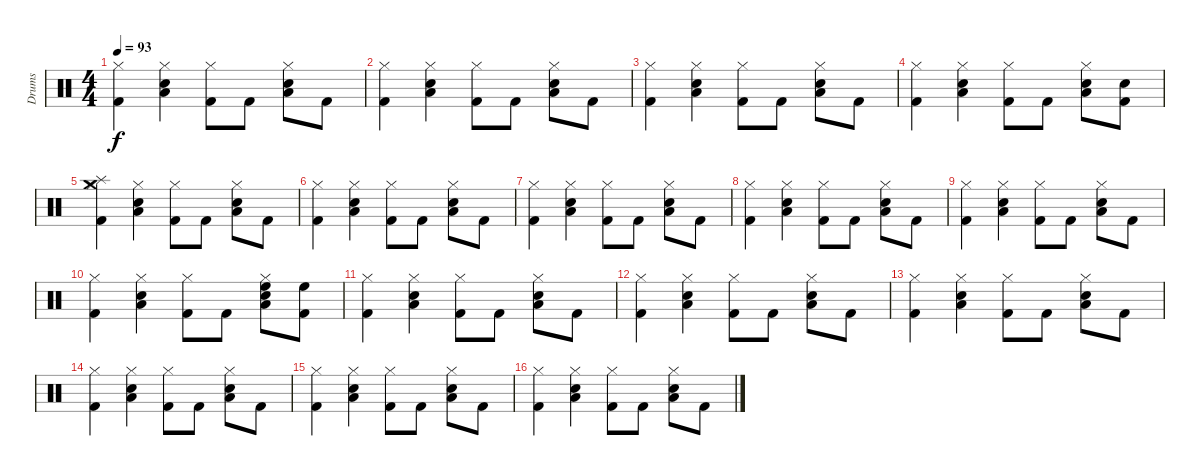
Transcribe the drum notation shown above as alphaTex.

\track ("Drums" "Drums") {instrument percussion}
\staff {score}
\articulation defaults
\ts (4 4)
\tempo 93
\clef neutral
\ks c
("Hi-Hat (closed)" "Kick (hit) 2").4{dy f} ("Hi-Hat (closed)" "Snare (hit) 2" "Low Tom (hit)").4 ("Hi-Hat (closed)" "Kick (hit) 2").8 "Kick (hit) 2".8 ("Hi-Hat (closed)" "Snare (hit) 2" "Low Tom (hit)").8 "Kick (hit) 2".8 |
("Hi-Hat (closed)" "Kick (hit) 2").4 ("Hi-Hat (closed)" "Snare (hit) 2" "Low Tom (hit)").4 ("Hi-Hat (closed)" "Kick (hit) 2").8 "Kick (hit) 2".8 ("Hi-Hat (closed)" "Snare (hit) 2" "Low Tom (hit)").8 "Kick (hit) 2".8 |
("Hi-Hat (closed)" "Kick (hit) 2").4 ("Hi-Hat (closed)" "Snare (hit) 2" "Low Tom (hit)").4 ("Hi-Hat (closed)" "Kick (hit) 2").8 "Kick (hit) 2".8 ("Hi-Hat (closed)" "Snare (hit) 2" "Low Tom (hit)").8 "Kick (hit) 2".8 |
("Hi-Hat (closed)" "Kick (hit) 2").4 ("Hi-Hat (closed)" "Snare (hit) 2" "Low Tom (hit)").4 ("Hi-Hat (closed)" "Kick (hit) 2").8 "Kick (hit) 2".8 ("Hi-Hat (closed)" "Snare (hit) 2" "Low Tom (hit)").8 ("Kick (hit) 2" "Snare (hit) 2").8 |
("Hi-Hat (closed)" "Kick (hit) 2" "Splash (hit)" "Crash medium (hit)").4 ("Hi-Hat (closed)" "Snare (hit) 2" "Low Tom (hit)").4 ("Hi-Hat (closed)" "Kick (hit) 2").8 "Kick (hit) 2".8 ("Hi-Hat (closed)" "Snare (hit) 2" "Low Tom (hit)").8 "Kick (hit) 2".8 |
("Hi-Hat (closed)" "Kick (hit) 2").4 ("Hi-Hat (closed)" "Snare (hit) 2" "Low Tom (hit)").4 ("Hi-Hat (closed)" "Kick (hit) 2").8 "Kick (hit) 2".8 ("Hi-Hat (closed)" "Snare (hit) 2" "Low Tom (hit)").8 "Kick (hit) 2".8 |
("Hi-Hat (closed)" "Kick (hit) 2").4 ("Hi-Hat (closed)" "Snare (hit) 2" "Low Tom (hit)").4 ("Hi-Hat (closed)" "Kick (hit) 2").8 "Kick (hit) 2".8 ("Hi-Hat (closed)" "Snare (hit) 2" "Low Tom (hit)").8 "Kick (hit) 2".8 |
("Hi-Hat (closed)" "Kick (hit) 2").4 ("Hi-Hat (closed)" "Snare (hit) 2" "Low Tom (hit)").4 ("Hi-Hat (closed)" "Kick (hit) 2").8 "Kick (hit) 2".8 ("Hi-Hat (closed)" "Snare (hit) 2" "Low Tom (hit)").8 "Kick (hit) 2".8 |
("Hi-Hat (closed)" "Kick (hit) 2").4 ("Hi-Hat (closed)" "Snare (hit) 2" "Low Tom (hit)").4 ("Hi-Hat (closed)" "Kick (hit) 2").8 "Kick (hit) 2".8 ("Hi-Hat (closed)" "Snare (hit) 2" "Low Tom (hit)").8 "Kick (hit) 2".8 |
("Hi-Hat (closed)" "Kick (hit) 2").4 ("Hi-Hat (closed)" "Snare (hit) 2" "Low Tom (hit)").4 ("Hi-Hat (closed)" "Kick (hit) 2").8 "Kick (hit) 2".8 ("Hi-Hat (closed)" "Snare (hit) 2" "Low Tom (hit)" "High Floor Tom (hit)").8 ("Kick (hit) 2" "High Floor Tom (hit)").8 |
("Hi-Hat (closed)" "Kick (hit) 2").4 ("Hi-Hat (closed)" "Snare (hit) 2" "Low Tom (hit)").4 ("Hi-Hat (closed)" "Kick (hit) 2").8 "Kick (hit) 2".8 ("Hi-Hat (closed)" "Snare (hit) 2" "Low Tom (hit)").8 "Kick (hit) 2".8 |
("Hi-Hat (closed)" "Kick (hit) 2").4 ("Hi-Hat (closed)" "Snare (hit) 2" "Low Tom (hit)").4 ("Hi-Hat (closed)" "Kick (hit) 2").8 "Kick (hit) 2".8 ("Hi-Hat (closed)" "Snare (hit) 2" "Low Tom (hit)").8 "Kick (hit) 2".8 |
("Hi-Hat (closed)" "Kick (hit) 2").4 ("Hi-Hat (closed)" "Snare (hit) 2" "Low Tom (hit)").4 ("Hi-Hat (closed)" "Kick (hit) 2").8 "Kick (hit) 2".8 ("Hi-Hat (closed)" "Snare (hit) 2" "Low Tom (hit)").8 "Kick (hit) 2".8 |
("Hi-Hat (closed)" "Kick (hit) 2").4 ("Hi-Hat (closed)" "Snare (hit) 2" "Low Tom (hit)").4 ("Hi-Hat (closed)" "Kick (hit) 2").8 "Kick (hit) 2".8 ("Hi-Hat (closed)" "Snare (hit) 2" "Low Tom (hit)").8 "Kick (hit) 2".8 |
("Hi-Hat (closed)" "Kick (hit) 2").4 ("Hi-Hat (closed)" "Snare (hit) 2" "Low Tom (hit)").4 ("Hi-Hat (closed)" "Kick (hit) 2").8 "Kick (hit) 2".8 ("Hi-Hat (closed)" "Snare (hit) 2" "Low Tom (hit)").8 "Kick (hit) 2".8 |
("Hi-Hat (closed)" "Kick (hit) 2").4 ("Hi-Hat (closed)" "Snare (hit) 2" "Low Tom (hit)").4 ("Hi-Hat (closed)" "Kick (hit) 2").8 "Kick (hit) 2".8 ("Hi-Hat (closed)" "Snare (hit) 2" "Low Tom (hit)").8 "Kick (hit) 2".8
